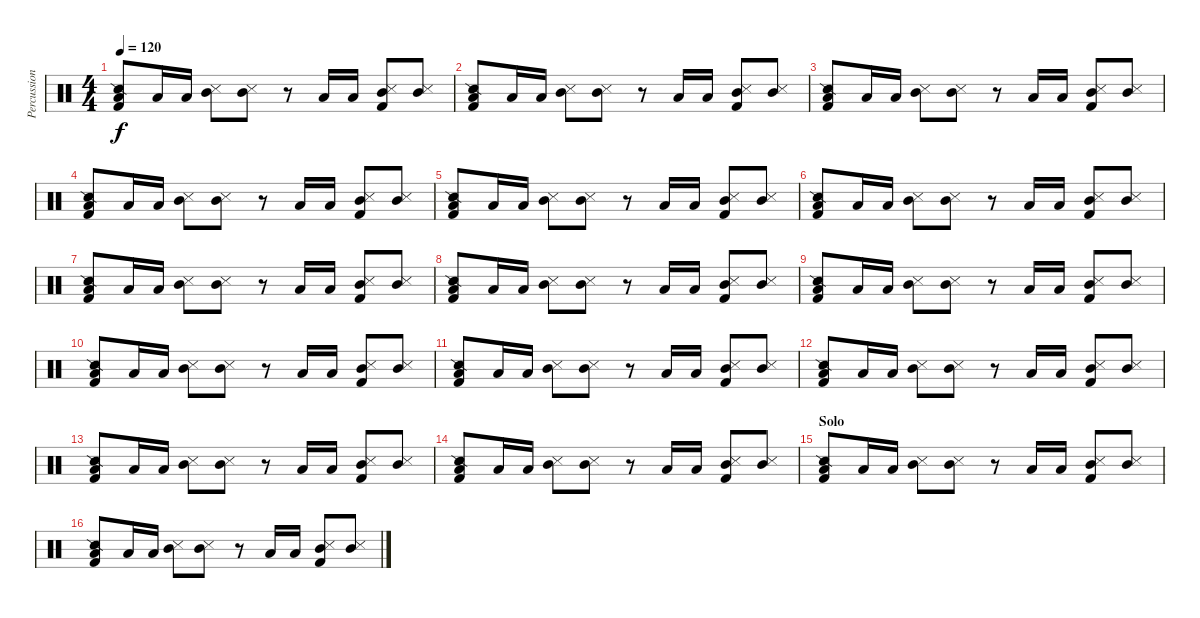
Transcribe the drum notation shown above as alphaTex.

\track ("Percussion" "Percussion") {instrument percussion}
\staff {score}
\articulation defaults
\ts (4 4)
\tempo 120
\clef neutral
\ks c
("Kick (hit) 2" "Snare (side stick) 2" "Low Floor Tom (hit)").8{dy f} "Low Tom (hit)".16 "Low Tom (hit)".16 ("Snare (side stick) 3" "Mid Tom (hit)").8 ("Snare (side stick) 3" "Mid Tom (hit)").8 r.8 "Low Tom (hit)".16 "Low Tom (hit)".16 ("Kick (hit) 2" "Snare (side stick) 3" "Mid Tom (hit)").8 ("Snare (side stick) 3" "Mid Tom (hit)").8 |
("Kick (hit) 2" "Snare (side stick) 2" "Low Floor Tom (hit)").8 "Low Tom (hit)".16 "Low Tom (hit)".16 ("Snare (side stick) 3" "Mid Tom (hit)").8 ("Snare (side stick) 3" "Mid Tom (hit)").8 r.8 "Low Tom (hit)".16 "Low Tom (hit)".16 ("Kick (hit) 2" "Snare (side stick) 3" "Mid Tom (hit)").8 ("Snare (side stick) 3" "Mid Tom (hit)").8 |
("Kick (hit) 2" "Snare (side stick) 2" "Low Floor Tom (hit)").8 "Low Tom (hit)".16 "Low Tom (hit)".16 ("Snare (side stick) 3" "Mid Tom (hit)").8 ("Snare (side stick) 3" "Mid Tom (hit)").8 r.8 "Low Tom (hit)".16 "Low Tom (hit)".16 ("Kick (hit) 2" "Snare (side stick) 3" "Mid Tom (hit)").8 ("Snare (side stick) 3" "Mid Tom (hit)").8 |
("Kick (hit) 2" "Snare (side stick) 2" "Low Floor Tom (hit)").8 "Low Tom (hit)".16 "Low Tom (hit)".16 ("Snare (side stick) 3" "Mid Tom (hit)").8 ("Snare (side stick) 3" "Mid Tom (hit)").8 r.8 "Low Tom (hit)".16 "Low Tom (hit)".16 ("Kick (hit) 2" "Snare (side stick) 3" "Mid Tom (hit)").8 ("Snare (side stick) 3" "Mid Tom (hit)").8 |
("Kick (hit) 2" "Snare (side stick) 2" "Low Floor Tom (hit)").8 "Low Tom (hit)".16 "Low Tom (hit)".16 ("Snare (side stick) 3" "Mid Tom (hit)").8 ("Snare (side stick) 3" "Mid Tom (hit)").8 r.8 "Low Tom (hit)".16 "Low Tom (hit)".16 ("Kick (hit) 2" "Snare (side stick) 3" "Mid Tom (hit)").8 ("Snare (side stick) 3" "Mid Tom (hit)").8 |
("Kick (hit) 2" "Snare (side stick) 2" "Low Floor Tom (hit)").8 "Low Tom (hit)".16 "Low Tom (hit)".16 ("Snare (side stick) 3" "Mid Tom (hit)").8 ("Snare (side stick) 3" "Mid Tom (hit)").8 r.8 "Low Tom (hit)".16 "Low Tom (hit)".16 ("Kick (hit) 2" "Snare (side stick) 3" "Mid Tom (hit)").8 ("Snare (side stick) 3" "Mid Tom (hit)").8 |
("Kick (hit) 2" "Snare (side stick) 2" "Low Floor Tom (hit)").8 "Low Tom (hit)".16 "Low Tom (hit)".16 ("Snare (side stick) 3" "Mid Tom (hit)").8 ("Snare (side stick) 3" "Mid Tom (hit)").8 r.8 "Low Tom (hit)".16 "Low Tom (hit)".16 ("Kick (hit) 2" "Snare (side stick) 3" "Mid Tom (hit)").8 ("Snare (side stick) 3" "Mid Tom (hit)").8 |
("Kick (hit) 2" "Snare (side stick) 2" "Low Floor Tom (hit)").8 "Low Tom (hit)".16 "Low Tom (hit)".16 ("Snare (side stick) 3" "Mid Tom (hit)").8 ("Snare (side stick) 3" "Mid Tom (hit)").8 r.8 "Low Tom (hit)".16 "Low Tom (hit)".16 ("Kick (hit) 2" "Snare (side stick) 3" "Mid Tom (hit)").8 ("Snare (side stick) 3" "Mid Tom (hit)").8 |
("Kick (hit) 2" "Snare (side stick) 2" "Low Floor Tom (hit)").8 "Low Tom (hit)".16 "Low Tom (hit)".16 ("Snare (side stick) 3" "Mid Tom (hit)").8 ("Snare (side stick) 3" "Mid Tom (hit)").8 r.8 "Low Tom (hit)".16 "Low Tom (hit)".16 ("Kick (hit) 2" "Snare (side stick) 3" "Mid Tom (hit)").8 ("Snare (side stick) 3" "Mid Tom (hit)").8 |
("Kick (hit) 2" "Snare (side stick) 2" "Low Floor Tom (hit)").8 "Low Tom (hit)".16 "Low Tom (hit)".16 ("Snare (side stick) 3" "Mid Tom (hit)").8 ("Snare (side stick) 3" "Mid Tom (hit)").8 r.8 "Low Tom (hit)".16 "Low Tom (hit)".16 ("Kick (hit) 2" "Snare (side stick) 3" "Mid Tom (hit)").8 ("Snare (side stick) 3" "Mid Tom (hit)").8 |
("Kick (hit) 2" "Snare (side stick) 2" "Low Floor Tom (hit)").8 "Low Tom (hit)".16 "Low Tom (hit)".16 ("Snare (side stick) 3" "Mid Tom (hit)").8 ("Snare (side stick) 3" "Mid Tom (hit)").8 r.8 "Low Tom (hit)".16 "Low Tom (hit)".16 ("Kick (hit) 2" "Snare (side stick) 3" "Mid Tom (hit)").8 ("Snare (side stick) 3" "Mid Tom (hit)").8 |
("Kick (hit) 2" "Snare (side stick) 2" "Low Floor Tom (hit)").8 "Low Tom (hit)".16 "Low Tom (hit)".16 ("Snare (side stick) 3" "Mid Tom (hit)").8 ("Snare (side stick) 3" "Mid Tom (hit)").8 r.8 "Low Tom (hit)".16 "Low Tom (hit)".16 ("Kick (hit) 2" "Snare (side stick) 3" "Mid Tom (hit)").8 ("Snare (side stick) 3" "Mid Tom (hit)").8 |
("Kick (hit) 2" "Snare (side stick) 2" "Low Floor Tom (hit)").8 "Low Tom (hit)".16 "Low Tom (hit)".16 ("Snare (side stick) 3" "Mid Tom (hit)").8 ("Snare (side stick) 3" "Mid Tom (hit)").8 r.8 "Low Tom (hit)".16 "Low Tom (hit)".16 ("Kick (hit) 2" "Snare (side stick) 3" "Mid Tom (hit)").8 ("Snare (side stick) 3" "Mid Tom (hit)").8 |
("Kick (hit) 2" "Snare (side stick) 2" "Low Floor Tom (hit)").8 "Low Tom (hit)".16 "Low Tom (hit)".16 ("Snare (side stick) 3" "Mid Tom (hit)").8 ("Snare (side stick) 3" "Mid Tom (hit)").8 r.8 "Low Tom (hit)".16 "Low Tom (hit)".16 ("Kick (hit) 2" "Snare (side stick) 3" "Mid Tom (hit)").8 ("Snare (side stick) 3" "Mid Tom (hit)").8 |
\section ("" "Solo")
("Kick (hit) 2" "Snare (side stick) 2" "Low Floor Tom (hit)").8 "Low Tom (hit)".16 "Low Tom (hit)".16 ("Snare (side stick) 3" "Mid Tom (hit)").8 ("Snare (side stick) 3" "Mid Tom (hit)").8 r.8 "Low Tom (hit)".16 "Low Tom (hit)".16 ("Kick (hit) 2" "Snare (side stick) 3" "Mid Tom (hit)").8 ("Snare (side stick) 3" "Mid Tom (hit)").8 |
("Kick (hit) 2" "Snare (side stick) 2" "Low Floor Tom (hit)").8 "Low Tom (hit)".16 "Low Tom (hit)".16 ("Snare (side stick) 3" "Mid Tom (hit)").8 ("Snare (side stick) 3" "Mid Tom (hit)").8 r.8 "Low Tom (hit)".16 "Low Tom (hit)".16 ("Kick (hit) 2" "Snare (side stick) 3" "Mid Tom (hit)").8 ("Snare (side stick) 3" "Mid Tom (hit)").8
